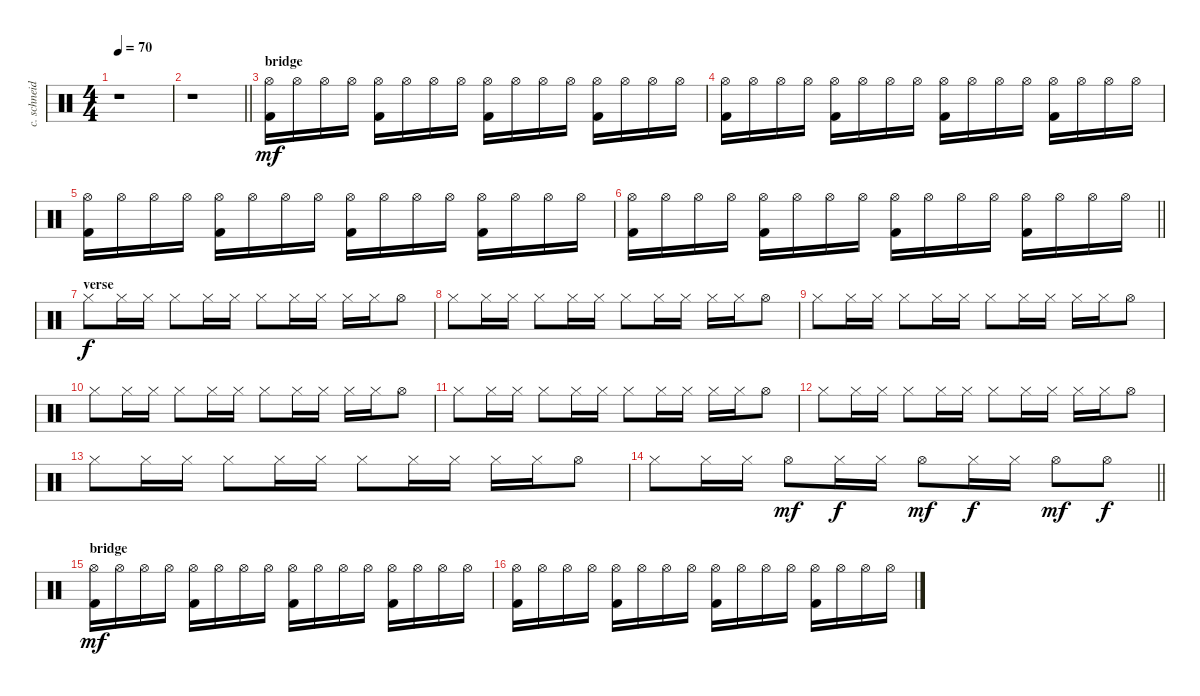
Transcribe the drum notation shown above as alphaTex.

\track ("c. schneider - drums" "c. schneid") {instrument percussion}
\staff {score}
\articulation defaults
\ts (4 4)
\tempo 70
\clef neutral
\ks c
r.1{dy mf} |
\barLineRight lightlight
r.1 |
\section ("" "bridge")
("Hi-Hat (open)" "Kick (hit) 2").16 "Hi-Hat (open)".16 "Hi-Hat (open)".16 "Hi-Hat (open)".16 ("Hi-Hat (open)" "Kick (hit) 2").16 "Hi-Hat (open)".16 "Hi-Hat (open)".16 "Hi-Hat (open)".16 ("Hi-Hat (open)" "Kick (hit) 2").16 "Hi-Hat (open)".16 "Hi-Hat (open)".16 "Hi-Hat (open)".16 ("Hi-Hat (open)" "Kick (hit) 2").16 "Hi-Hat (open)".16 "Hi-Hat (open)".16 "Hi-Hat (open)".16 |
("Hi-Hat (open)" "Kick (hit) 2").16 "Hi-Hat (open)".16 "Hi-Hat (open)".16 "Hi-Hat (open)".16 ("Hi-Hat (open)" "Kick (hit) 2").16 "Hi-Hat (open)".16 "Hi-Hat (open)".16 "Hi-Hat (open)".16 ("Hi-Hat (open)" "Kick (hit) 2").16 "Hi-Hat (open)".16 "Hi-Hat (open)".16 "Hi-Hat (open)".16 ("Hi-Hat (open)" "Kick (hit) 2").16 "Hi-Hat (open)".16 "Hi-Hat (open)".16 "Hi-Hat (open)".16 |
("Hi-Hat (open)" "Kick (hit) 2").16 "Hi-Hat (open)".16 "Hi-Hat (open)".16 "Hi-Hat (open)".16 ("Hi-Hat (open)" "Kick (hit) 2").16 "Hi-Hat (open)".16 "Hi-Hat (open)".16 "Hi-Hat (open)".16 ("Hi-Hat (open)" "Kick (hit) 2").16 "Hi-Hat (open)".16 "Hi-Hat (open)".16 "Hi-Hat (open)".16 ("Hi-Hat (open)" "Kick (hit) 2").16 "Hi-Hat (open)".16 "Hi-Hat (open)".16 "Hi-Hat (open)".16 |
\barLineRight lightlight
("Hi-Hat (open)" "Kick (hit) 2").16 "Hi-Hat (open)".16 "Hi-Hat (open)".16 "Hi-Hat (open)".16 ("Hi-Hat (open)" "Kick (hit) 2").16 "Hi-Hat (open)".16 "Hi-Hat (open)".16 "Hi-Hat (open)".16 ("Hi-Hat (open)" "Kick (hit) 2").16 "Hi-Hat (open)".16 "Hi-Hat (open)".16 "Hi-Hat (open)".16 ("Hi-Hat (open)" "Kick (hit) 2").16 "Hi-Hat (open)".16 "Hi-Hat (open)".16 "Hi-Hat (open)".16 |
\section ("" "verse")
"Hi-Hat (closed)".8{dy f} "Hi-Hat (closed)".16 "Hi-Hat (closed)".16 "Hi-Hat (closed)".8 "Hi-Hat (closed)".16 "Hi-Hat (closed)".16 "Hi-Hat (closed)".8 "Hi-Hat (closed)".16 "Hi-Hat (closed)".16 "Hi-Hat (closed)".16 "Hi-Hat (closed)".16 "Hi-Hat (open)".8 |
"Hi-Hat (closed)".8 "Hi-Hat (closed)".16 "Hi-Hat (closed)".16 "Hi-Hat (closed)".8 "Hi-Hat (closed)".16 "Hi-Hat (closed)".16 "Hi-Hat (closed)".8 "Hi-Hat (closed)".16 "Hi-Hat (closed)".16 "Hi-Hat (closed)".16 "Hi-Hat (closed)".16 "Hi-Hat (open)".8 |
"Hi-Hat (closed)".8 "Hi-Hat (closed)".16 "Hi-Hat (closed)".16 "Hi-Hat (closed)".8 "Hi-Hat (closed)".16 "Hi-Hat (closed)".16 "Hi-Hat (closed)".8 "Hi-Hat (closed)".16 "Hi-Hat (closed)".16 "Hi-Hat (closed)".16 "Hi-Hat (closed)".16 "Hi-Hat (open)".8 |
"Hi-Hat (closed)".8 "Hi-Hat (closed)".16 "Hi-Hat (closed)".16 "Hi-Hat (closed)".8 "Hi-Hat (closed)".16 "Hi-Hat (closed)".16 "Hi-Hat (closed)".8 "Hi-Hat (closed)".16 "Hi-Hat (closed)".16 "Hi-Hat (closed)".16 "Hi-Hat (closed)".16 "Hi-Hat (open)".8 |
"Hi-Hat (closed)".8 "Hi-Hat (closed)".16 "Hi-Hat (closed)".16 "Hi-Hat (closed)".8 "Hi-Hat (closed)".16 "Hi-Hat (closed)".16 "Hi-Hat (closed)".8 "Hi-Hat (closed)".16 "Hi-Hat (closed)".16 "Hi-Hat (closed)".16 "Hi-Hat (closed)".16 "Hi-Hat (open)".8 |
"Hi-Hat (closed)".8 "Hi-Hat (closed)".16 "Hi-Hat (closed)".16 "Hi-Hat (closed)".8 "Hi-Hat (closed)".16 "Hi-Hat (closed)".16 "Hi-Hat (closed)".8 "Hi-Hat (closed)".16 "Hi-Hat (closed)".16 "Hi-Hat (closed)".16 "Hi-Hat (closed)".16 "Hi-Hat (open)".8 |
"Hi-Hat (closed)".8 "Hi-Hat (closed)".16 "Hi-Hat (closed)".16 "Hi-Hat (closed)".8 "Hi-Hat (closed)".16 "Hi-Hat (closed)".16 "Hi-Hat (closed)".8 "Hi-Hat (closed)".16 "Hi-Hat (closed)".16 "Hi-Hat (closed)".16 "Hi-Hat (closed)".16 "Hi-Hat (open)".8 |
\barLineRight lightlight "Hi-Hat (closed)".8 "Hi-Hat (closed)".16 "Hi-Hat (closed)".16 "Hi-Hat (open)".8{dy mf} "Hi-Hat (closed)".16{dy f} "Hi-Hat (closed)".16 "Hi-Hat (open)".8{dy mf} "Hi-Hat (closed)".16{dy f} "Hi-Hat (closed)".16 "Hi-Hat (open)".8{dy mf} "Hi-Hat (open)".8{dy f}
|
\section ("" "bridge")
("Hi-Hat (open)" "Kick (hit) 2").16{dy mf} "Hi-Hat (open)".16 "Hi-Hat (open)".16 "Hi-Hat (open)".16 ("Hi-Hat (open)" "Kick (hit) 2").16 "Hi-Hat (open)".16 "Hi-Hat (open)".16 "Hi-Hat (open)".16 ("Hi-Hat (open)" "Kick (hit) 2").16 "Hi-Hat (open)".16 "Hi-Hat (open)".16 "Hi-Hat (open)".16 ("Hi-Hat (open)" "Kick (hit) 2").16 "Hi-Hat (open)".16 "Hi-Hat (open)".16 "Hi-Hat (open)".16 |
("Hi-Hat (open)" "Kick (hit) 2").16 "Hi-Hat (open)".16 "Hi-Hat (open)".16 "Hi-Hat (open)".16 ("Hi-Hat (open)" "Kick (hit) 2").16 "Hi-Hat (open)".16 "Hi-Hat (open)".16 "Hi-Hat (open)".16 ("Hi-Hat (open)" "Kick (hit) 2").16 "Hi-Hat (open)".16 "Hi-Hat (open)".16 "Hi-Hat (open)".16 ("Hi-Hat (open)" "Kick (hit) 2").16 "Hi-Hat (open)".16 "Hi-Hat (open)".16 "Hi-Hat (open)".16
